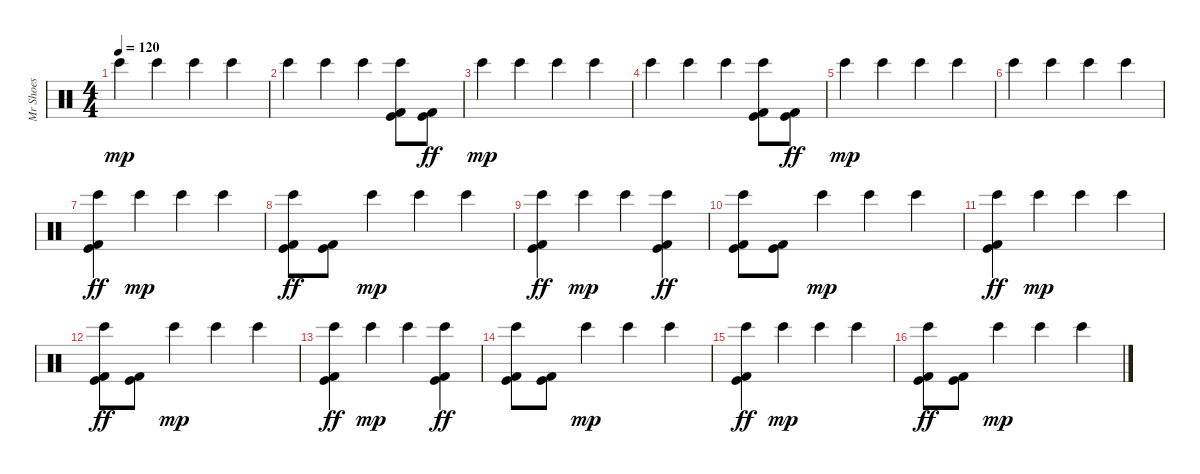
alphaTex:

\track ("Mr Shoes" "Mr Shoes") {instrument percussion}
\staff {score}
\articulation defaults
\ts (4 4)
\tempo 120
\clef neutral
\ks c "Bongo High (hit)".4{dy mp} "Bongo High (hit)".4 "Bongo High (hit)".4 "Bongo High (hit)".4
|
"Bongo High (hit)".4 "Bongo High (hit)".4 "Bongo High (hit)".4 ("Kick (hit) 2" "Kick (hit)" "Bongo High (hit)").8 ("Kick (hit) 2" "Kick (hit)").8{dy ff} |
"Bongo High (hit)".4{dy mp} "Bongo High (hit)".4 "Bongo High (hit)".4 "Bongo High (hit)".4 |
"Bongo High (hit)".4 "Bongo High (hit)".4 "Bongo High (hit)".4 ("Kick (hit) 2" "Kick (hit)" "Bongo High (hit)").8 ("Kick (hit) 2" "Kick (hit)").8{dy ff} |
"Bongo High (hit)".4{dy mp} "Bongo High (hit)".4 "Bongo High (hit)".4 "Bongo High (hit)".4 |
"Bongo High (hit)".4 "Bongo High (hit)".4 "Bongo High (hit)".4 "Bongo High (hit)".4 |
("Bongo High (hit)" "Kick (hit)" "Kick (hit) 2").4{dy ff} "Bongo High (hit)".4{dy mp} "Bongo High (hit)".4 "Bongo High (hit)".4 |
("Bongo High (hit)" "Kick (hit)" "Kick (hit) 2").8{dy ff} ("Kick (hit)" "Kick (hit) 2").8 "Bongo High (hit)".4{dy mp} "Bongo High (hit)".4 "Bongo High (hit)".4 |
("Bongo High (hit)" "Kick (hit)" "Kick (hit) 2").4{dy ff} "Bongo High (hit)".4{dy mp} "Bongo High (hit)".4 ("Bongo High (hit)" "Kick (hit)" "Kick (hit) 2").4{dy ff} |
("Bongo High (hit)" "Kick (hit)" "Kick (hit) 2").8 ("Kick (hit)" "Kick (hit) 2").8 "Bongo High (hit)".4{dy mp} "Bongo High (hit)".4 "Bongo High (hit)".4 |
("Bongo High (hit)" "Kick (hit)" "Kick (hit) 2").4{dy ff} "Bongo High (hit)".4{dy mp} "Bongo High (hit)".4 "Bongo High (hit)".4 |
("Bongo High (hit)" "Kick (hit)" "Kick (hit) 2").8{dy ff} ("Kick (hit)" "Kick (hit) 2").8 "Bongo High (hit)".4{dy mp} "Bongo High (hit)".4 "Bongo High (hit)".4 |
("Bongo High (hit)" "Kick (hit)" "Kick (hit) 2").4{dy ff} "Bongo High (hit)".4{dy mp} "Bongo High (hit)".4 ("Bongo High (hit)" "Kick (hit)" "Kick (hit) 2").4{dy ff} |
("Bongo High (hit)" "Kick (hit)" "Kick (hit) 2").8 ("Kick (hit)" "Kick (hit) 2").8 "Bongo High (hit)".4{dy mp} "Bongo High (hit)".4 "Bongo High (hit)".4 |
("Bongo High (hit)" "Kick (hit)" "Kick (hit) 2").4{dy ff} "Bongo High (hit)".4{dy mp} "Bongo High (hit)".4 "Bongo High (hit)".4 |
("Bongo High (hit)" "Kick (hit)" "Kick (hit) 2").8{dy ff} ("Kick (hit)" "Kick (hit) 2").8 "Bongo High (hit)".4{dy mp} "Bongo High (hit)".4 "Bongo High (hit)".4
